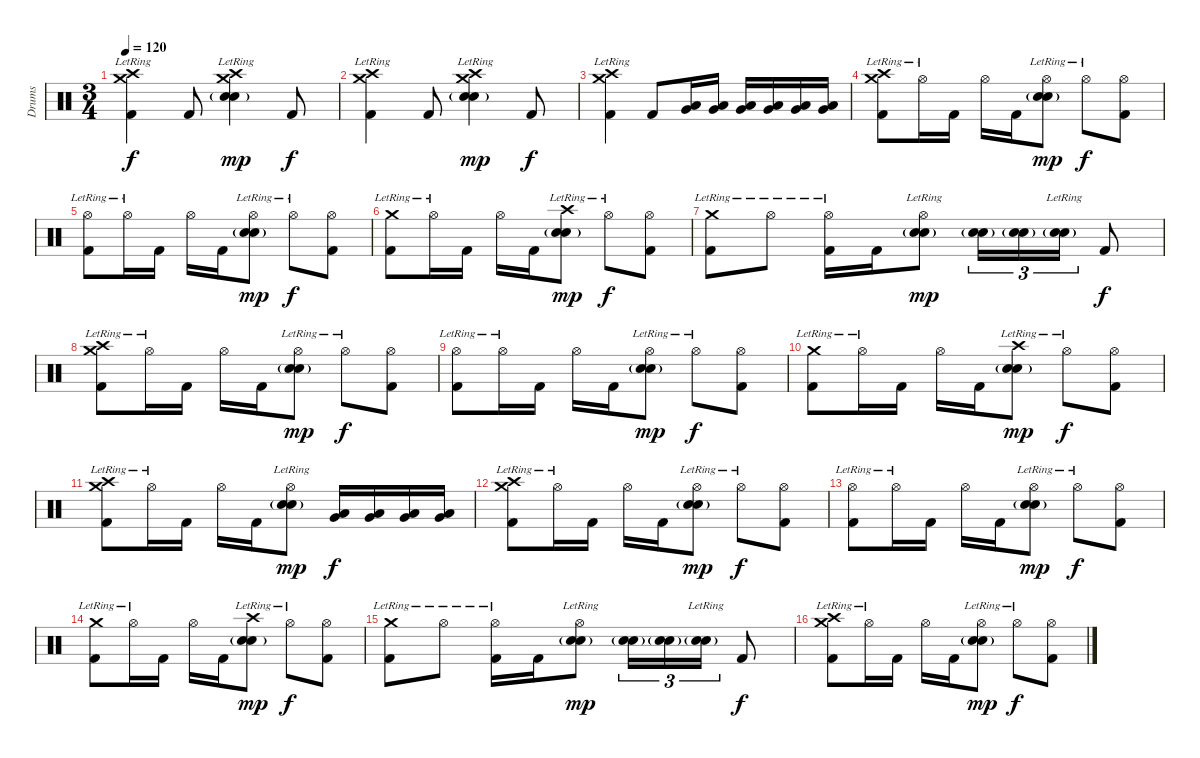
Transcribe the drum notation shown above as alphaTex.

\track ("Drums" "Drums") {instrument percussion}
\staff {score}
\articulation defaults
\ts (3 4)
\tempo 120
\clef neutral
\ks c
("Crash high (hit)"{lr} "Crash medium (hit)"{lr} "Kick (hit) 2").4{dy f} "Kick (hit) 2".8 ("Crash high (hit)"{lr} "Crash medium (hit)"{lr} "Electric Snare (hit)"{g} "Snare (hit) 2"{lr}).4{dy mp} "Kick (hit) 2".8{dy f} |
("Crash high (hit)"{lr} "Crash medium (hit)"{lr} "Kick (hit) 2").4 "Kick (hit) 2".8 ("Crash high (hit)"{lr} "Crash medium (hit)"{lr} "Electric Snare (hit)"{g} "Snare (hit) 2"{lr}).4{dy mp} "Kick (hit) 2".8{dy f} |
("Crash high (hit)"{lr} "Crash medium (hit)"{lr} "Kick (hit) 2").4 "Kick (hit) 2".8 ("Low Tom (hit)" "Very Low Tom (hit)").16 ("Low Tom (hit)" "Very Low Tom (hit)").16 ("Low Tom (hit)" "Very Low Tom (hit)").16 ("Low Tom (hit)" "Very Low Tom (hit)").16 ("Very Low Tom (hit)" "Low Floor Tom (hit)").16 ("Very Low Tom (hit)" "Low Floor Tom (hit)").16 |
("Crash high (hit)"{lr} "Crash medium (hit)"{lr} "Kick (hit) 2").8 "Hi-Hat (open)"{lr}.16 "Kick (hit) 2".16 "Hi-Hat (open)".16 "Kick (hit) 2".16 ("Hi-Hat (open)"{lr} "Electric Snare (hit)"{g} "Snare (hit) 2"{lr}).8{dy mp} "Hi-Hat (open)"{lr}.8{dy f} ("Hi-Hat (open)" "Kick (hit) 2").8 |
("Hi-Hat (open)"{lr} "Kick (hit) 2").8 "Hi-Hat (open)"{lr}.16 "Kick (hit) 2".16 "Hi-Hat (open)".16 "Kick (hit) 2".16 ("Hi-Hat (open)"{lr} "Electric Snare (hit)"{g} "Snare (hit) 2"{lr}).8{dy mp} "Hi-Hat (open)"{lr}.8{dy f} ("Hi-Hat (open)" "Kick (hit) 2").8 |
("Crash medium (hit)"{lr} "Kick (hit) 2").8 "Hi-Hat (open)"{lr}.16 "Kick (hit) 2".16 "Hi-Hat (open)".16 "Kick (hit) 2".16 ("Crash high (hit)"{lr} "Electric Snare (hit)"{g} "Snare (hit) 2"{lr}).8{dy mp} "Hi-Hat (open)"{lr}.8{dy f} ("Hi-Hat (open)" "Kick (hit) 2").8 |
("Crash medium (hit)"{lr} "Kick (hit) 2").8 "Hi-Hat (open)"{lr}.8 ("Hi-Hat (open)"{lr} "Kick (hit) 2").16 "Kick (hit) 2".16 ("Hi-Hat (open)"{lr} "Electric Snare (hit)"{g} "Snare (hit) 2"{lr}).8{dy mp} ("Electric Snare (hit)"{g} "Snare (hit) 2").16{tu (3 2)} ("Electric Snare (hit)"{g} "Snare (hit) 2").16{tu (3 2)} ("Electric Snare (hit)"{g} "Snare (hit) 2"{lr}).16{tu (3 2)} "Kick (hit) 2".8{dy f} |
("Crash high (hit)"{lr} "Crash medium (hit)"{lr} "Kick (hit) 2").8 "Hi-Hat (open)"{lr}.16 "Kick (hit) 2".16 "Hi-Hat (open)".16 "Kick (hit) 2".16 ("Hi-Hat (open)"{lr} "Electric Snare (hit)"{g} "Snare (hit) 2"{lr}).8{dy mp} "Hi-Hat (open)"{lr}.8{dy f} ("Hi-Hat (open)" "Kick (hit) 2").8 |
("Hi-Hat (open)"{lr} "Kick (hit) 2").8 "Hi-Hat (open)"{lr}.16 "Kick (hit) 2".16 "Hi-Hat (open)".16 "Kick (hit) 2".16 ("Hi-Hat (open)"{lr} "Electric Snare (hit)"{g} "Snare (hit) 2"{lr}).8{dy mp} "Hi-Hat (open)"{lr}.8{dy f} ("Hi-Hat (open)" "Kick (hit) 2").8 |
("Crash medium (hit)"{lr} "Kick (hit) 2").8 "Hi-Hat (open)"{lr}.16 "Kick (hit) 2".16 "Hi-Hat (open)".16 "Kick (hit) 2".16 ("Crash high (hit)"{lr} "Electric Snare (hit)"{g} "Snare (hit) 2"{lr}).8{dy mp} "Hi-Hat (open)"{lr}.8{dy f} ("Hi-Hat (open)" "Kick (hit) 2").8 |
("Crash high (hit)"{lr} "Crash medium (hit)"{lr} "Kick (hit) 2").8 "Hi-Hat (open)"{lr}.16 "Kick (hit) 2".16 "Hi-Hat (open)".16 "Kick (hit) 2".16 ("Hi-Hat (open)"{lr} "Electric Snare (hit)"{g} "Snare (hit) 2"{lr}).8{dy mp} ("Low Tom (hit)" "Very Low Tom (hit)").16{dy f} ("Low Tom (hit)" "Very Low Tom (hit)").16 ("Low Tom (hit)" "Very Low Tom (hit)").16 ("Low Tom (hit)" "Very Low Tom (hit)").16 |
("Crash high (hit)"{lr} "Crash medium (hit)"{lr} "Kick (hit) 2").8 "Hi-Hat (open)"{lr}.16 "Kick (hit) 2".16 "Hi-Hat (open)".16 "Kick (hit) 2".16 ("Hi-Hat (open)"{lr} "Electric Snare (hit)"{g} "Snare (hit) 2"{lr}).8{dy mp} "Hi-Hat (open)"{lr}.8{dy f} ("Hi-Hat (open)" "Kick (hit) 2").8 |
("Hi-Hat (open)"{lr} "Kick (hit) 2").8 "Hi-Hat (open)"{lr}.16 "Kick (hit) 2".16 "Hi-Hat (open)".16 "Kick (hit) 2".16 ("Hi-Hat (open)"{lr} "Electric Snare (hit)"{g} "Snare (hit) 2"{lr}).8{dy mp} "Hi-Hat (open)"{lr}.8{dy f} ("Hi-Hat (open)" "Kick (hit) 2").8 |
("Crash medium (hit)"{lr} "Kick (hit) 2").8 "Hi-Hat (open)"{lr}.16 "Kick (hit) 2".16 "Hi-Hat (open)".16 "Kick (hit) 2".16 ("Crash high (hit)"{lr} "Electric Snare (hit)"{g} "Snare (hit) 2"{lr}).8{dy mp} "Hi-Hat (open)"{lr}.8{dy f} ("Hi-Hat (open)" "Kick (hit) 2").8 |
("Crash medium (hit)"{lr} "Kick (hit) 2").8 "Hi-Hat (open)"{lr}.8 ("Hi-Hat (open)"{lr} "Kick (hit) 2").16 "Kick (hit) 2".16 ("Hi-Hat (open)"{lr} "Electric Snare (hit)"{g} "Snare (hit) 2"{lr}).8{dy mp} ("Electric Snare (hit)"{g} "Snare (hit) 2").16{tu (3 2)} ("Electric Snare (hit)"{g} "Snare (hit) 2").16{tu (3 2)} ("Electric Snare (hit)"{g} "Snare (hit) 2"{lr}).16{tu (3 2)} "Kick (hit) 2".8{dy f} |
("Crash high (hit)"{lr} "Crash medium (hit)"{lr} "Kick (hit) 2").8 "Hi-Hat (open)"{lr}.16 "Kick (hit) 2".16 "Hi-Hat (open)".16 "Kick (hit) 2".16 ("Hi-Hat (open)"{lr} "Electric Snare (hit)"{g} "Snare (hit) 2"{lr}).8{dy mp} "Hi-Hat (open)"{lr}.8{dy f} ("Hi-Hat (open)" "Kick (hit) 2").8
